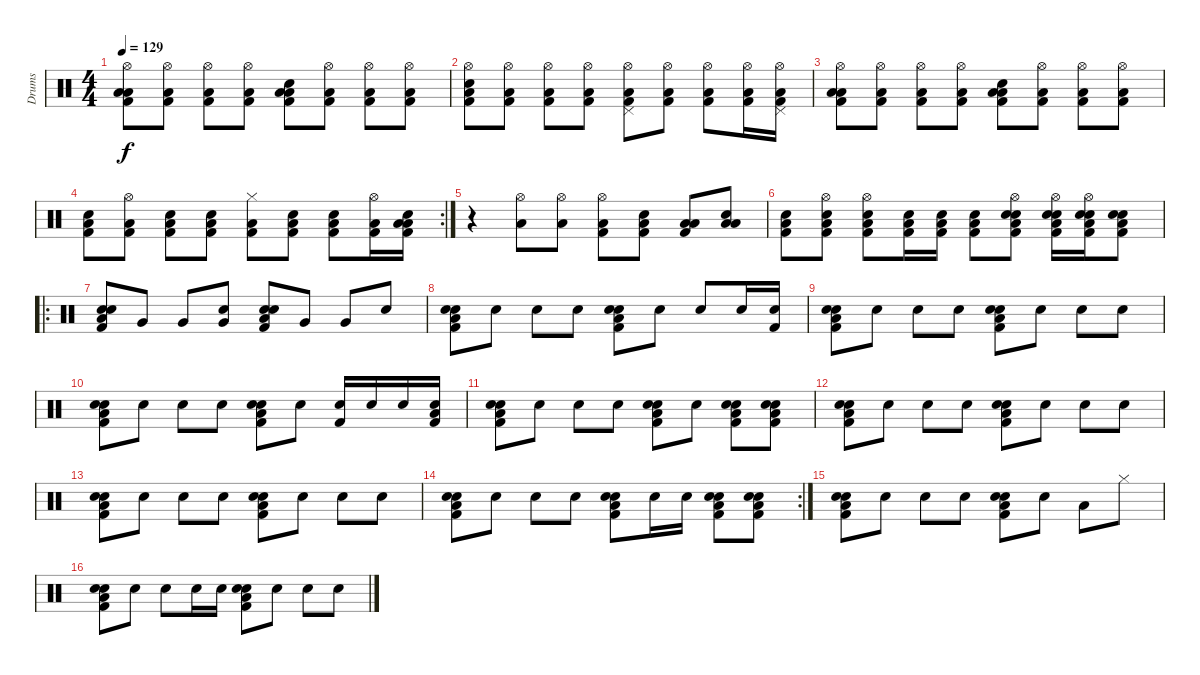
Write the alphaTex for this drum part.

\track ("Drums" "Drums") {instrument percussion}
\staff {score}
\articulation defaults
\ts (4 4)
\tempo 129
\clef neutral
\ks c
("Hi-Hat (open)" "Low Tom (hit)" "Low Floor Tom (hit)" "Kick (hit) 2").8{dy f} ("Hi-Hat (open)" "Low Floor Tom (hit)" "Kick (hit) 2").8 ("Hi-Hat (open)" "Low Floor Tom (hit)" "Kick (hit) 2").8 ("Hi-Hat (open)" "Low Floor Tom (hit)" "Kick (hit) 2").8 ("Snare (hit) 2" "Low Tom (hit)" "Low Floor Tom (hit)" "Kick (hit) 2").8 ("Hi-Hat (open)" "Low Floor Tom (hit)" "Kick (hit) 2").8 ("Hi-Hat (open)" "Low Floor Tom (hit)" "Kick (hit) 2").8 ("Hi-Hat (open)" "Low Floor Tom (hit)" "Kick (hit) 2").8 |
("Hi-Hat (open)" "Snare (hit)" "Low Floor Tom (hit)" "Kick (hit) 2").8 ("Hi-Hat (open)" "Low Floor Tom (hit)" "Kick (hit) 2").8 ("Hi-Hat (open)" "Low Floor Tom (hit)" "Kick (hit) 2").8 ("Hi-Hat (open)" "Low Floor Tom (hit)" "Kick (hit) 2").8 ("Hi-Hat (open)" "Pedal Hi-Hat (hit)" "Low Floor Tom (hit)" "Kick (hit) 2").8 ("Hi-Hat (open)" "Low Floor Tom (hit)" "Kick (hit) 2").8 ("Hi-Hat (open)" "Low Floor Tom (hit)" "Kick (hit) 2").8 ("Hi-Hat (open)" "Low Floor Tom (hit)" "Kick (hit) 2").16 ("Hi-Hat (open)" "Pedal Hi-Hat (hit)" "Low Floor Tom (hit)" "Kick (hit) 2").16 |
("Hi-Hat (open)" "Low Tom (hit)" "Low Floor Tom (hit)" "Kick (hit) 2").8 ("Hi-Hat (open)" "Low Floor Tom (hit)" "Kick (hit) 2").8 ("Hi-Hat (open)" "Low Floor Tom (hit)" "Kick (hit) 2").8 ("Hi-Hat (open)" "Low Floor Tom (hit)" "Kick (hit) 2").8 ("Snare (hit) 2" "Low Tom (hit)" "Low Floor Tom (hit)" "Kick (hit) 2").8 ("Hi-Hat (open)" "Low Floor Tom (hit)" "Kick (hit) 2").8 ("Hi-Hat (open)" "Low Floor Tom (hit)" "Kick (hit) 2").8 ("Hi-Hat (open)" "Low Floor Tom (hit)" "Kick (hit) 2").8 |
\rc 2
("Snare (hit) 2" "Kick (hit) 2" "Low Floor Tom (hit)").8 ("Hi-Hat (open)" "Kick (hit) 2" "Low Floor Tom (hit)").8 ("Snare (hit) 2" "Kick (hit) 2" "Low Floor Tom (hit)").8 ("Snare (hit) 2" "Kick (hit) 2" "Low Floor Tom (hit)").8 ("Hi-Hat (closed)" "Kick (hit) 2" "Low Floor Tom (hit)").8 ("Snare (hit) 2" "Kick (hit) 2" "Low Floor Tom (hit)").8 ("Snare (hit) 2" "Kick (hit) 2" "Low Floor Tom (hit)").8 ("Hi-Hat (open)" "Kick (hit) 2" "Low Floor Tom (hit)").16 ("Snare (hit) 2" "Low Tom (hit)" "Kick (hit) 2" "Low Floor Tom (hit)").16 |
r.4 ("Hi-Hat (open)" "Low Floor Tom (hit)").8 ("Hi-Hat (open)" "Low Floor Tom (hit)").8 ("Hi-Hat (open)" "Kick (hit) 2" "Low Floor Tom (hit)").8 ("Snare (hit)" "Kick (hit) 2" "Low Floor Tom (hit)").8 ("Low Floor Tom (hit)" "Kick (hit) 2" "Low Floor Tom (hit)").8 ("Low Tom (hit)" "Snare (hit) 2" "Low Floor Tom (hit)").8 |
("Low Tom (hit)" "Snare (hit) 2" "Kick (hit) 2").8 ("Hi-Hat (open)" "Low Tom (hit)" "Snare (hit) 2" "Kick (hit) 2").8 ("Hi-Hat (open)" "Low Tom (hit)" "Snare (hit) 2" "Kick (hit) 2").8 ("Low Tom (hit)" "Snare (hit) 2" "Kick (hit) 2").16 ("Low Tom (hit)" "Snare (hit) 2" "Kick (hit) 2").16 ("Low Tom (hit)" "Snare (hit) 2" "Kick (hit) 2").8 ("Snare (hit) 2" "Hi-Hat (open)" "Low Tom (hit)" "Snare (hit) 2" "Kick (hit) 2").8 ("Snare (hit) 2" "Hi-Hat (open)" "Low Tom (hit)" "Snare (hit) 2" "Kick (hit) 2").16 ("Snare (hit) 2" "Hi-Hat (open)" "Low Tom (hit)" "Snare (hit) 2" "Kick (hit) 2").16 ("Snare (hit) 2" "Low Tom (hit)" "Snare (hit) 2" "Kick (hit) 2").8 |
\ro
("Snare (hit) 2" "Low Tom (hit)" "Snare (hit) 2" "Kick (hit) 2").8 "Very Low Tom (hit)".8 "Very Low Tom (hit)".8 ("Snare (hit) 2" "Very Low Tom (hit)").8 ("Snare (hit) 2" "Low Tom (hit)" "Snare (hit) 2" "Kick (hit) 2").8 "Very Low Tom (hit)".8 "Very Low Tom (hit)".8 "Snare (hit) 2".8 |
("Snare (hit) 2" "Low Tom (hit)" "Snare (hit) 2" "Kick (hit) 2").8 "Snare (hit) 2".8 "Snare (hit) 2".8 "Snare (hit) 2".8 ("Snare (hit) 2" "Low Tom (hit)" "Snare (hit) 2" "Kick (hit) 2").8 "Snare (hit) 2".8 "Snare (hit) 2".8 "Snare (hit) 2".16 ("Snare (hit) 2" "Kick (hit) 2").16 |
("Snare (hit) 2" "Low Tom (hit)" "Snare (hit) 2" "Kick (hit) 2").8 "Snare (hit) 2".8 "Snare (hit) 2".8 "Snare (hit) 2".8 ("Snare (hit) 2" "Low Tom (hit)" "Snare (hit) 2" "Kick (hit) 2").8 "Snare (hit) 2".8 "Snare (hit) 2".8 "Snare (hit) 2".8 |
("Snare (hit) 2" "Low Tom (hit)" "Snare (hit) 2" "Kick (hit) 2").8 "Snare (hit) 2".8 "Snare (hit) 2".8 "Snare (hit) 2".8 ("Snare (hit) 2" "Low Tom (hit)" "Snare (hit) 2" "Kick (hit) 2").8 "Snare (hit) 2".8 ("Snare (hit) 2" "Kick (hit) 2").16 "Snare (hit) 2".16 "Snare (hit) 2".16 ("Low Floor Tom (hit)" "Snare (hit) 2" "Kick (hit) 2").16 |
("Snare (hit) 2" "Low Tom (hit)" "Snare (hit) 2" "Kick (hit) 2").8 "Snare (hit) 2".8 "Snare (hit) 2".8 "Snare (hit) 2".8 ("Snare (hit) 2" "Low Tom (hit)" "Snare (hit) 2" "Kick (hit) 2").8 "Snare (hit) 2".8 ("Snare (hit) 2" "Low Tom (hit)" "Snare (hit) 2" "Kick (hit) 2").8 ("Snare (hit) 2" "Low Tom (hit)" "Snare (hit) 2" "Kick (hit) 2").8 |
("Snare (hit) 2" "Low Tom (hit)" "Snare (hit) 2" "Kick (hit) 2").8 "Snare (hit) 2".8 "Snare (hit) 2".8 "Snare (hit) 2".8 ("Snare (hit) 2" "Low Tom (hit)" "Snare (hit) 2" "Kick (hit) 2").8 "Snare (hit) 2".8 "Snare (hit) 2".8 "Snare (hit) 2".8 |
("Snare (hit) 2" "Low Tom (hit)" "Snare (hit) 2" "Kick (hit) 2").8 "Snare (hit) 2".8 "Snare (hit) 2".8 "Snare (hit) 2".8 ("Snare (hit) 2" "Low Tom (hit)" "Snare (hit) 2" "Kick (hit) 2").8 "Snare (hit) 2".8 "Snare (hit) 2".8 "Snare (hit) 2".8 |
\rc 2
("Snare (hit) 2" "Low Tom (hit)" "Snare (hit) 2" "Kick (hit) 2").8 "Snare (hit) 2".8 "Snare (hit) 2".8 "Snare (hit) 2".8 ("Snare (hit) 2" "Low Tom (hit)" "Snare (hit) 2" "Kick (hit) 2").8 "Snare (hit) 2".16 "Snare (hit) 2".16 ("Snare (hit) 2" "Low Tom (hit)" "Snare (hit) 2" "Kick (hit) 2").8 ("Snare (hit) 2" "Low Tom (hit)" "Snare (hit) 2" "Kick (hit) 2").8 |
("Snare (hit) 2" "Low Tom (hit)" "Snare (hit) 2" "Kick (hit) 2").8 "Snare (hit) 2".8 "Snare (hit) 2".8 "Snare (hit) 2".8 ("Snare (hit) 2" "Low Tom (hit)" "Snare (hit) 2" "Kick (hit) 2").8 "Snare (hit) 2".8 "Low Floor Tom (hit)".8 "Hi-Hat (closed)".8 |
("Snare (hit) 2" "Low Tom (hit)" "Snare (hit) 2" "Kick (hit) 2").8 "Snare (hit) 2".8 "Snare (hit) 2".8 "Snare (hit) 2".16 "Snare (hit) 2".16 ("Snare (hit) 2" "Low Tom (hit)" "Snare (hit) 2" "Kick (hit) 2").8 "Snare (hit) 2".8 "Snare (hit) 2".8 "Snare (hit) 2".8
